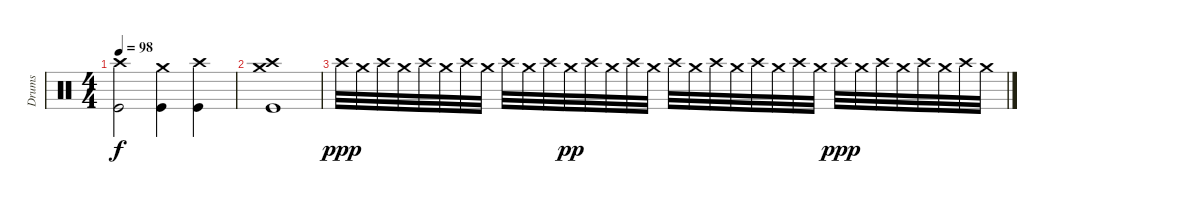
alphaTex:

\track ("Drums" "Drums") {instrument percussion}
\staff {score}
\articulation defaults
\ts (4 4)
\tempo 98
\clef neutral
\ks c
("Crash high (hit)" "Kick (hit)").2{dy f} ("Crash medium (hit)" "Kick (hit)").4 ("Crash high (hit)" "Kick (hit)").4 |
("Crash medium (hit)" "Crash high (hit)" "Kick (hit)").1 |
"Crash high (hit)".32{dy ppp} "Crash medium (hit)".32 "Crash high (hit)".32 "Crash medium (hit)".32 "Crash high (hit)".32 "Crash medium (hit)".32 "Crash high (hit)".32 "Crash medium (hit)".32 "Crash high (hit)".32 "Crash medium (hit)".32 "Crash high (hit)".32 "Crash medium (hit)".32{dy pp} "Crash high (hit)".32 "Crash medium (hit)".32 "Crash high (hit)".32 "Crash medium (hit)".32 "Crash high (hit)".32 "Crash medium (hit)".32 "Crash high (hit)".32 "Crash medium (hit)".32 "Crash high (hit)".32 "Crash medium (hit)".32 "Crash high (hit)".32 "Crash medium (hit)".32 "Crash high (hit)".32{dy ppp} "Crash medium (hit)".32 "Crash high (hit)".32 "Crash medium (hit)".32 "Crash high (hit)".32 "Crash medium (hit)".32 "Crash high (hit)".32 "Crash medium (hit)".32
